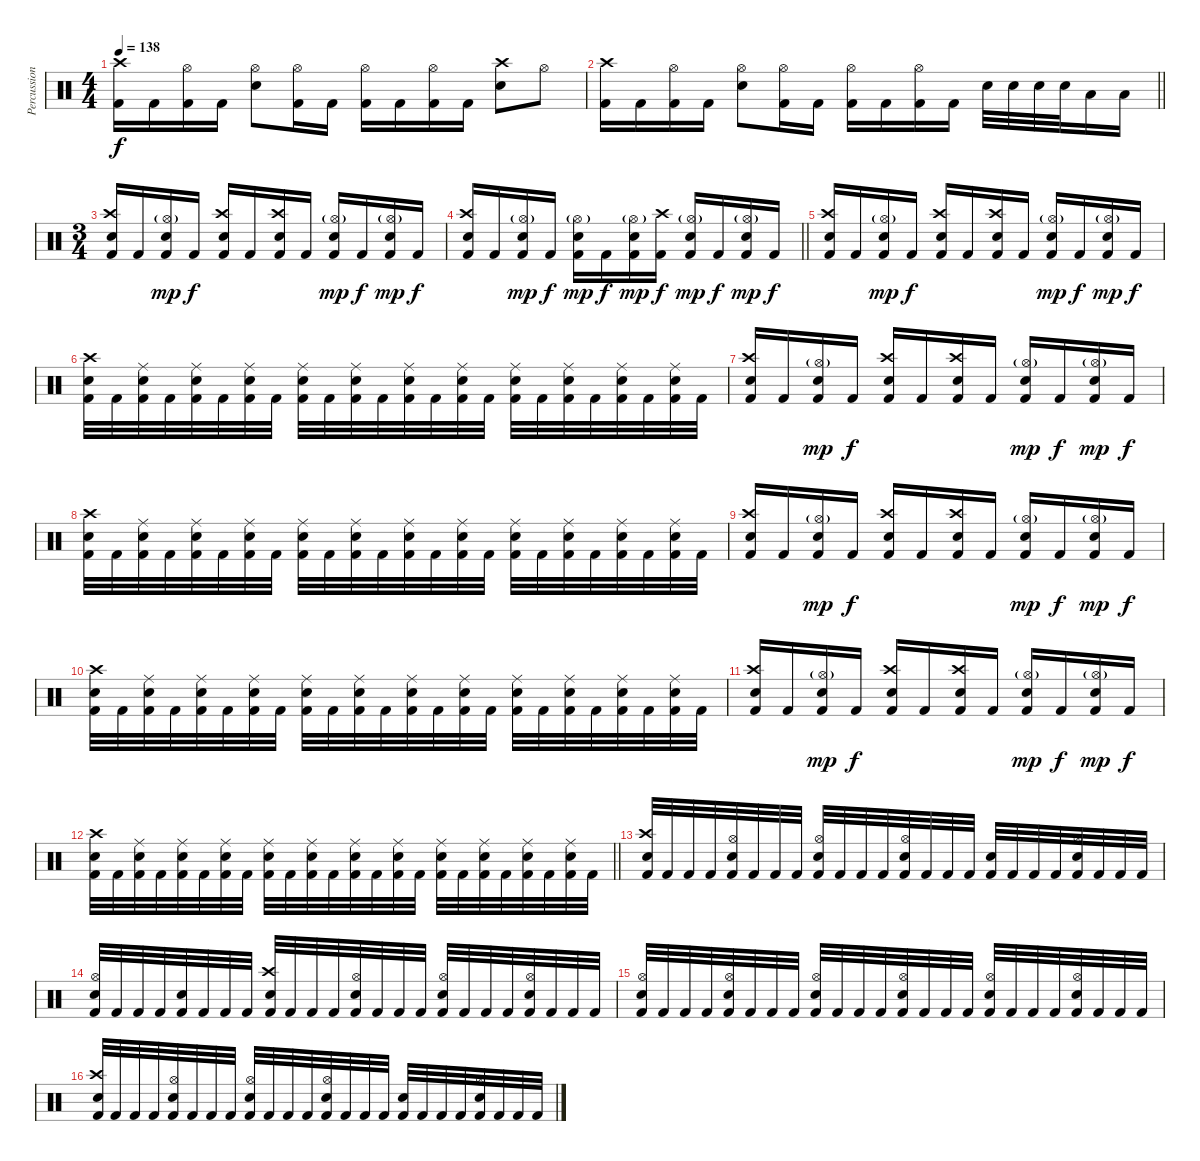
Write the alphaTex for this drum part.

\track ("Percussion" "Percussion") {instrument percussion}
\staff {score}
\articulation defaults
\ts (4 4)
\tempo 138
\clef neutral
\ks c
("Kick (hit) 2" "Crash high (hit)").16{dy f} "Kick (hit) 2".16 ("Kick (hit) 2" "Hi-Hat (open)").16 "Kick (hit) 2".16 ("Electric Snare (hit)" "Hi-Hat (open)").8 ("Kick (hit) 2" "Hi-Hat (open)").16 "Kick (hit) 2".16 ("Kick (hit) 2" "Hi-Hat (open)").16 "Kick (hit) 2".16 ("Kick (hit) 2" "Hi-Hat (open)").16 "Kick (hit) 2".16 ("Electric Snare (hit)" "Crash high (hit)").8 "Hi-Hat (open)".8 |
\barLineRight lightlight
("Kick (hit) 2" "Crash high (hit)").16 "Kick (hit) 2".16 ("Kick (hit) 2" "Hi-Hat (open)").16 "Kick (hit) 2".16 ("Electric Snare (hit)" "Hi-Hat (open)").8 ("Kick (hit) 2" "Hi-Hat (open)").16 "Kick (hit) 2".16 ("Kick (hit) 2" "Hi-Hat (open)").16 "Kick (hit) 2".16 ("Kick (hit) 2" "Hi-Hat (open)").16 "Kick (hit) 2".16 "Electric Snare (hit)".32 "Electric Snare (hit)".32 "Electric Snare (hit)".32 "Electric Snare (hit)".32 "Low Tom (hit)".16 "Low Tom (hit)".16 |
\ts (3 4)
\section ("" "")
("Kick (hit) 2" "Crash high (hit)" "Electric Snare (hit)").16 "Kick (hit) 2".16 ("Kick (hit) 2" "Hi-Hat (open)"{g} "Electric Snare (hit)").16{dy mp} "Kick (hit) 2".16{dy f} ("Kick (hit) 2" "Crash high (hit)" "Electric Snare (hit)").16 "Kick (hit) 2".16 ("Kick (hit) 2" "Crash high (hit)" "Electric Snare (hit)").16 "Kick (hit) 2".16 ("Kick (hit) 2" "Hi-Hat (open)"{g} "Electric Snare (hit)").16{dy mp} "Kick (hit) 2".16{dy f} ("Kick (hit) 2" "Hi-Hat (open)"{g} "Electric Snare (hit)").16{dy mp} "Kick (hit) 2".16{dy f} |
\barLineRight lightlight
("Kick (hit) 2" "Crash high (hit)" "Electric Snare (hit)").16 "Kick (hit) 2".16 ("Kick (hit) 2" "Hi-Hat (open)"{g} "Electric Snare (hit)").16{dy mp} "Kick (hit) 2".16{dy f} ("Kick (hit) 2" "Hi-Hat (open)"{g} "Electric Snare (hit)").16{dy mp} "Kick (hit) 2".16{dy f} ("Kick (hit) 2" "Hi-Hat (open)"{g} "Electric Snare (hit)").16{dy mp} ("Kick (hit) 2" "Crash high (hit)").16{dy f} ("Kick (hit) 2" "Hi-Hat (open)"{g} "Electric Snare (hit)").16{dy mp} "Kick (hit) 2".16{dy f} ("Kick (hit) 2" "Hi-Hat (open)"{g} "Electric Snare (hit)").16{dy mp} "Kick (hit) 2".16{dy f} |
\section ("" "")
("Kick (hit) 2" "Crash high (hit)" "Electric Snare (hit)").16 "Kick (hit) 2".16 ("Kick (hit) 2" "Hi-Hat (open)"{g} "Electric Snare (hit)").16{dy mp} "Kick (hit) 2".16{dy f} ("Kick (hit) 2" "Crash high (hit)" "Electric Snare (hit)").16 "Kick (hit) 2".16 ("Kick (hit) 2" "Crash high (hit)" "Electric Snare (hit)").16 "Kick (hit) 2".16 ("Kick (hit) 2" "Hi-Hat (open)"{g} "Electric Snare (hit)").16{dy mp} "Kick (hit) 2".16{dy f} ("Kick (hit) 2" "Hi-Hat (open)"{g} "Electric Snare (hit)").16{dy mp} "Kick (hit) 2".16{dy f} |
("Kick (hit) 2" "Electric Snare (hit)" "Crash high (hit)").32 "Kick (hit) 2".32 ("Kick (hit) 2" "Electric Snare (hit)" "Ride (middle)").32 "Kick (hit) 2".32 ("Kick (hit) 2" "Electric Snare (hit)" "Ride (middle)").32 "Kick (hit) 2".32 ("Kick (hit) 2" "Electric Snare (hit)" "Ride (middle)").32 "Kick (hit) 2".32 ("Kick (hit) 2" "Electric Snare (hit)" "Ride (middle)").32 "Kick (hit) 2".32 ("Kick (hit) 2" "Electric Snare (hit)" "Ride (middle)").32 "Kick (hit) 2".32 ("Kick (hit) 2" "Electric Snare (hit)" "Ride (middle)").32 "Kick (hit) 2".32 ("Kick (hit) 2" "Electric Snare (hit)" "Ride (middle)").32 "Kick (hit) 2".32 ("Kick (hit) 2" "Electric Snare (hit)" "Ride (middle)").32 "Kick (hit) 2".32 ("Kick (hit) 2" "Electric Snare (hit)" "Ride (middle)").32 "Kick (hit) 2".32 ("Kick (hit) 2" "Electric Snare (hit)" "Ride (middle)").32 "Kick (hit) 2".32 ("Kick (hit) 2" "Electric Snare (hit)" "Ride (middle)").32 "Kick (hit) 2".32 |
("Kick (hit) 2" "Crash high (hit)" "Electric Snare (hit)").16 "Kick (hit) 2".16 ("Kick (hit) 2" "Hi-Hat (open)"{g} "Electric Snare (hit)").16{dy mp} "Kick (hit) 2".16{dy f} ("Kick (hit) 2" "Crash high (hit)" "Electric Snare (hit)").16 "Kick (hit) 2".16 ("Kick (hit) 2" "Crash high (hit)" "Electric Snare (hit)").16 "Kick (hit) 2".16 ("Kick (hit) 2" "Hi-Hat (open)"{g} "Electric Snare (hit)").16{dy mp} "Kick (hit) 2".16{dy f} ("Kick (hit) 2" "Hi-Hat (open)"{g} "Electric Snare (hit)").16{dy mp} "Kick (hit) 2".16{dy f} |
("Kick (hit) 2" "Electric Snare (hit)" "Crash high (hit)").32 "Kick (hit) 2".32 ("Kick (hit) 2" "Electric Snare (hit)" "Ride (middle)").32 "Kick (hit) 2".32 ("Kick (hit) 2" "Electric Snare (hit)" "Ride (middle)").32 "Kick (hit) 2".32 ("Kick (hit) 2" "Electric Snare (hit)" "Ride (middle)").32 "Kick (hit) 2".32 ("Kick (hit) 2" "Electric Snare (hit)" "Ride (middle)").32 "Kick (hit) 2".32 ("Kick (hit) 2" "Electric Snare (hit)" "Ride (middle)").32 "Kick (hit) 2".32 ("Kick (hit) 2" "Electric Snare (hit)" "Ride (middle)").32 "Kick (hit) 2".32 ("Kick (hit) 2" "Electric Snare (hit)" "Ride (middle)").32 "Kick (hit) 2".32 ("Kick (hit) 2" "Electric Snare (hit)" "Ride (middle)").32 "Kick (hit) 2".32 ("Kick (hit) 2" "Electric Snare (hit)" "Ride (middle)").32 "Kick (hit) 2".32 ("Kick (hit) 2" "Electric Snare (hit)" "Ride (middle)").32 "Kick (hit) 2".32 ("Kick (hit) 2" "Electric Snare (hit)" "Ride (middle)").32 "Kick (hit) 2".32 |
("Kick (hit) 2" "Crash high (hit)" "Electric Snare (hit)").16 "Kick (hit) 2".16 ("Kick (hit) 2" "Hi-Hat (open)"{g} "Electric Snare (hit)").16{dy mp} "Kick (hit) 2".16{dy f} ("Kick (hit) 2" "Crash high (hit)" "Electric Snare (hit)").16 "Kick (hit) 2".16 ("Kick (hit) 2" "Crash high (hit)" "Electric Snare (hit)").16 "Kick (hit) 2".16 ("Kick (hit) 2" "Hi-Hat (open)"{g} "Electric Snare (hit)").16{dy mp} "Kick (hit) 2".16{dy f} ("Kick (hit) 2" "Hi-Hat (open)"{g} "Electric Snare (hit)").16{dy mp} "Kick (hit) 2".16{dy f} |
("Kick (hit) 2" "Electric Snare (hit)" "Crash high (hit)").32 "Kick (hit) 2".32 ("Kick (hit) 2" "Electric Snare (hit)" "Ride (middle)").32 "Kick (hit) 2".32 ("Kick (hit) 2" "Electric Snare (hit)" "Ride (middle)").32 "Kick (hit) 2".32 ("Kick (hit) 2" "Electric Snare (hit)" "Ride (middle)").32 "Kick (hit) 2".32 ("Kick (hit) 2" "Electric Snare (hit)" "Ride (middle)").32 "Kick (hit) 2".32 ("Kick (hit) 2" "Electric Snare (hit)" "Ride (middle)").32 "Kick (hit) 2".32 ("Kick (hit) 2" "Electric Snare (hit)" "Ride (middle)").32 "Kick (hit) 2".32 ("Kick (hit) 2" "Electric Snare (hit)" "Ride (middle)").32 "Kick (hit) 2".32 ("Kick (hit) 2" "Electric Snare (hit)" "Ride (middle)").32 "Kick (hit) 2".32 ("Kick (hit) 2" "Electric Snare (hit)" "Ride (middle)").32 "Kick (hit) 2".32 ("Kick (hit) 2" "Electric Snare (hit)" "Ride (middle)").32 "Kick (hit) 2".32 ("Kick (hit) 2" "Electric Snare (hit)" "Ride (middle)").32 "Kick (hit) 2".32 |
("Kick (hit) 2" "Crash high (hit)" "Electric Snare (hit)").16 "Kick (hit) 2".16 ("Kick (hit) 2" "Hi-Hat (open)"{g} "Electric Snare (hit)").16{dy mp} "Kick (hit) 2".16{dy f} ("Kick (hit) 2" "Crash high (hit)" "Electric Snare (hit)").16 "Kick (hit) 2".16 ("Kick (hit) 2" "Crash high (hit)" "Electric Snare (hit)").16 "Kick (hit) 2".16 ("Kick (hit) 2" "Hi-Hat (open)"{g} "Electric Snare (hit)").16{dy mp} "Kick (hit) 2".16{dy f} ("Kick (hit) 2" "Hi-Hat (open)"{g} "Electric Snare (hit)").16{dy mp} "Kick (hit) 2".16{dy f} |
\barLineRight lightlight
("Kick (hit) 2" "Electric Snare (hit)" "Crash high (hit)").32 "Kick (hit) 2".32 ("Kick (hit) 2" "Electric Snare (hit)" "Ride (middle)").32 "Kick (hit) 2".32 ("Kick (hit) 2" "Electric Snare (hit)" "Ride (middle)").32 "Kick (hit) 2".32 ("Kick (hit) 2" "Electric Snare (hit)" "Ride (middle)").32 "Kick (hit) 2".32 ("Kick (hit) 2" "Electric Snare (hit)" "Ride (middle)").32 "Kick (hit) 2".32 ("Kick (hit) 2" "Electric Snare (hit)" "Ride (middle)").32 "Kick (hit) 2".32 ("Kick (hit) 2" "Electric Snare (hit)" "Ride (middle)").32 "Kick (hit) 2".32 ("Kick (hit) 2" "Electric Snare (hit)" "Ride (middle)").32 "Kick (hit) 2".32 ("Kick (hit) 2" "Electric Snare (hit)" "Ride (middle)").32 "Kick (hit) 2".32 ("Kick (hit) 2" "Electric Snare (hit)" "Ride (middle)").32 "Kick (hit) 2".32 ("Kick (hit) 2" "Electric Snare (hit)" "Ride (middle)").32 "Kick (hit) 2".32 ("Kick (hit) 2" "Electric Snare (hit)" "Ride (middle)").32 "Kick (hit) 2".32 |
\section ("" "")
("Kick (hit) 2" "Electric Snare (hit)" "Crash high (hit)").32 "Kick (hit) 2".32 "Kick (hit) 2".32 "Kick (hit) 2".32 ("Kick (hit) 2" "Electric Snare (hit)" "Hi-Hat (open)").32 "Kick (hit) 2".32 "Kick (hit) 2".32 "Kick (hit) 2".32 ("Kick (hit) 2" "Electric Snare (hit)" "Hi-Hat (open)").32 "Kick (hit) 2".32 "Kick (hit) 2".32 "Kick (hit) 2".32 ("Kick (hit) 2" "Electric Snare (hit)" "Hi-Hat (open)").32 "Kick (hit) 2".32 "Kick (hit) 2".32 "Kick (hit) 2".32 ("Kick (hit) 2" "Electric Snare (hit)").32 "Kick (hit) 2".32 "Kick (hit) 2".32 "Kick (hit) 2".32 ("Kick (hit) 2" "Electric Snare (hit)" "Hi-Hat (open)").32 "Kick (hit) 2".32 "Kick (hit) 2".32 "Kick (hit) 2".32 |
("Kick (hit) 2" "Electric Snare (hit)" "Hi-Hat (open)").32 "Kick (hit) 2".32 "Kick (hit) 2".32 "Kick (hit) 2".32 ("Kick (hit) 2" "Electric Snare (hit)").32 "Kick (hit) 2".32 "Kick (hit) 2".32 "Kick (hit) 2".32 ("Kick (hit) 2" "Electric Snare (hit)" "Crash high (hit)").32 "Kick (hit) 2".32 "Kick (hit) 2".32 "Kick (hit) 2".32 ("Kick (hit) 2" "Electric Snare (hit)" "Hi-Hat (open)").32 "Kick (hit) 2".32 "Kick (hit) 2".32 "Kick (hit) 2".32 ("Kick (hit) 2" "Electric Snare (hit)" "Hi-Hat (open)").32 "Kick (hit) 2".32 "Kick (hit) 2".32 "Kick (hit) 2".32 ("Kick (hit) 2" "Electric Snare (hit)" "Hi-Hat (open)").32 "Kick (hit) 2".32 "Kick (hit) 2".32 "Kick (hit) 2".32 |
("Kick (hit) 2" "Electric Snare (hit)" "Hi-Hat (open)").32 "Kick (hit) 2".32 "Kick (hit) 2".32 "Kick (hit) 2".32 ("Kick (hit) 2" "Electric Snare (hit)" "Hi-Hat (open)").32 "Kick (hit) 2".32 "Kick (hit) 2".32 "Kick (hit) 2".32 ("Kick (hit) 2" "Electric Snare (hit)" "Hi-Hat (open)").32 "Kick (hit) 2".32 "Kick (hit) 2".32 "Kick (hit) 2".32 ("Kick (hit) 2" "Electric Snare (hit)" "Hi-Hat (open)").32 "Kick (hit) 2".32 "Kick (hit) 2".32 "Kick (hit) 2".32 ("Kick (hit) 2" "Electric Snare (hit)" "Hi-Hat (open)").32 "Kick (hit) 2".32 "Kick (hit) 2".32 "Kick (hit) 2".32 ("Kick (hit) 2" "Electric Snare (hit)" "Hi-Hat (open)").32 "Kick (hit) 2".32 "Kick (hit) 2".32 "Kick (hit) 2".32 |
("Kick (hit) 2" "Electric Snare (hit)" "Crash high (hit)").32 "Kick (hit) 2".32 "Kick (hit) 2".32 "Kick (hit) 2".32 ("Kick (hit) 2" "Electric Snare (hit)" "Hi-Hat (open)").32 "Kick (hit) 2".32 "Kick (hit) 2".32 "Kick (hit) 2".32 ("Kick (hit) 2" "Electric Snare (hit)" "Hi-Hat (open)").32 "Kick (hit) 2".32 "Kick (hit) 2".32 "Kick (hit) 2".32 ("Kick (hit) 2" "Electric Snare (hit)" "Hi-Hat (open)").32 "Kick (hit) 2".32 "Kick (hit) 2".32 "Kick (hit) 2".32 ("Kick (hit) 2" "Electric Snare (hit)").32 "Kick (hit) 2".32 "Kick (hit) 2".32 "Kick (hit) 2".32 ("Kick (hit) 2" "Electric Snare (hit)" "Hi-Hat (open)").32 "Kick (hit) 2".32 "Kick (hit) 2".32 "Kick (hit) 2".32
